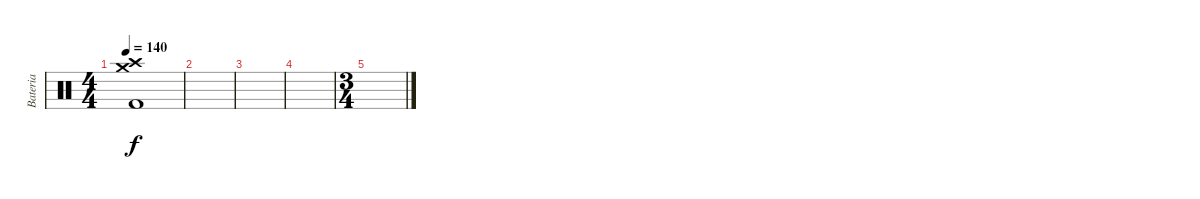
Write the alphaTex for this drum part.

\track ("Bateria" "Bateria") {instrument percussion}
\staff {score}
\articulation defaults
\ts (4 4)
\tempo 140
\clef neutral
\ks c
("Crash high (hit)" "Crash medium (hit)" "Kick (hit) 2").1{dy f} |
|
|
|
\ts (3 4)
